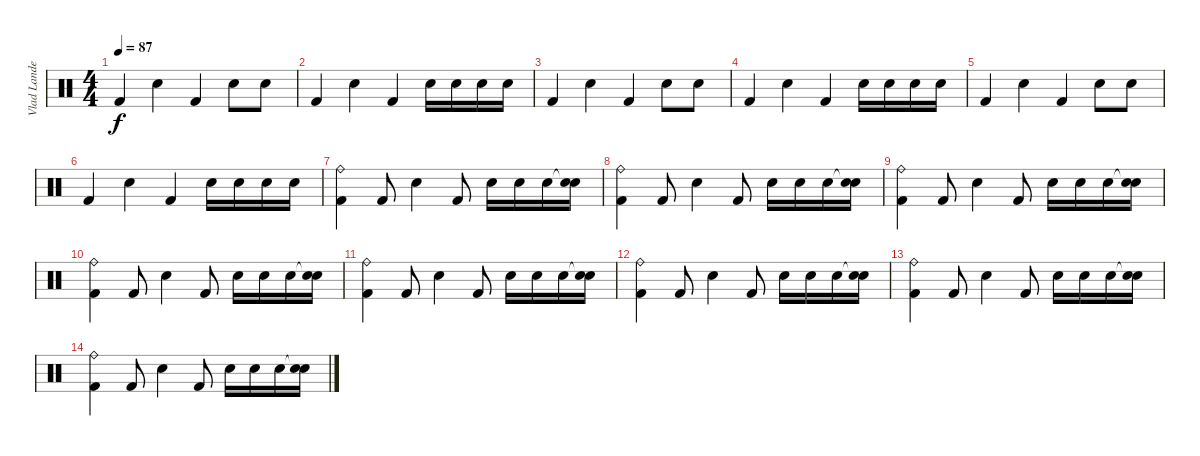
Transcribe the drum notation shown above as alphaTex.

\track ("Vlad Landeros" "Vlad Lande") {instrument percussion}
\staff {score}
\articulation defaults
\ts (4 4)
\tempo 87
\clef neutral
\ks c "Kick (hit) 2".4{dy f} "Snare (hit) 2".4 "Kick (hit) 2".4 "Snare (hit) 2".8 "Snare (hit) 2".8
|
"Kick (hit) 2".4 "Snare (hit) 2".4 "Kick (hit) 2".4 "Snare (hit) 2".16 "Snare (hit) 2".16 "Snare (hit) 2".16 "Snare (hit) 2".16 |
"Kick (hit) 2".4 "Snare (hit) 2".4 "Kick (hit) 2".4 "Snare (hit) 2".8 "Snare (hit) 2".8 |
"Kick (hit) 2".4 "Snare (hit) 2".4 "Kick (hit) 2".4 "Snare (hit) 2".16 "Snare (hit) 2".16 "Snare (hit) 2".16 "Snare (hit) 2".16 |
"Kick (hit) 2".4 "Snare (hit) 2".4 "Kick (hit) 2".4 "Snare (hit) 2".8 "Snare (hit) 2".8 |
"Kick (hit) 2".4 "Snare (hit) 2".4 "Kick (hit) 2".4 "Snare (hit) 2".16 "Snare (hit) 2".16 "Snare (hit) 2".16 "Snare (hit) 2".16 |
("Ride (bell)" "Kick (hit) 2").4 "Kick (hit) 2".8 "Snare (hit) 2".4 "Kick (hit) 2".8 "Snare (hit) 2".16 "Snare (hit) 2".16 "Snare (hit) 2".16 ("Snare (hit)"{t} "Snare (hit) 2").16 |
("Ride (bell)" "Kick (hit) 2").4 "Kick (hit) 2".8 "Snare (hit) 2".4 "Kick (hit) 2".8 "Snare (hit) 2".16 "Snare (hit) 2".16 "Snare (hit) 2".16 ("Snare (hit)"{t} "Snare (hit) 2").16 |
("Ride (bell)" "Kick (hit) 2").4 "Kick (hit) 2".8 "Snare (hit) 2".4 "Kick (hit) 2".8 "Snare (hit) 2".16 "Snare (hit) 2".16 "Snare (hit) 2".16 ("Snare (hit)"{t} "Snare (hit) 2").16 |
("Ride (bell)" "Kick (hit) 2").4 "Kick (hit) 2".8 "Snare (hit) 2".4 "Kick (hit) 2".8 "Snare (hit) 2".16 "Snare (hit) 2".16 "Snare (hit) 2".16 ("Snare (hit)"{t} "Snare (hit) 2").16 |
("Ride (bell)" "Kick (hit) 2").4 "Kick (hit) 2".8 "Snare (hit) 2".4 "Kick (hit) 2".8 "Snare (hit) 2".16 "Snare (hit) 2".16 "Snare (hit) 2".16 ("Snare (hit)"{t} "Snare (hit) 2").16 |
("Ride (bell)" "Kick (hit) 2").4 "Kick (hit) 2".8 "Snare (hit) 2".4 "Kick (hit) 2".8 "Snare (hit) 2".16 "Snare (hit) 2".16 "Snare (hit) 2".16 ("Snare (hit)"{t} "Snare (hit) 2").16 |
("Ride (bell)" "Kick (hit) 2").4 "Kick (hit) 2".8 "Snare (hit) 2".4 "Kick (hit) 2".8 "Snare (hit) 2".16 "Snare (hit) 2".16 "Snare (hit) 2".16 ("Snare (hit)"{t} "Snare (hit) 2").16 |
("Ride (bell)" "Kick (hit) 2").4 "Kick (hit) 2".8 "Snare (hit) 2".4 "Kick (hit) 2".8 "Snare (hit) 2".16 "Snare (hit) 2".16 "Snare (hit) 2".16 ("Snare (hit)"{t} "Snare (hit) 2").16
